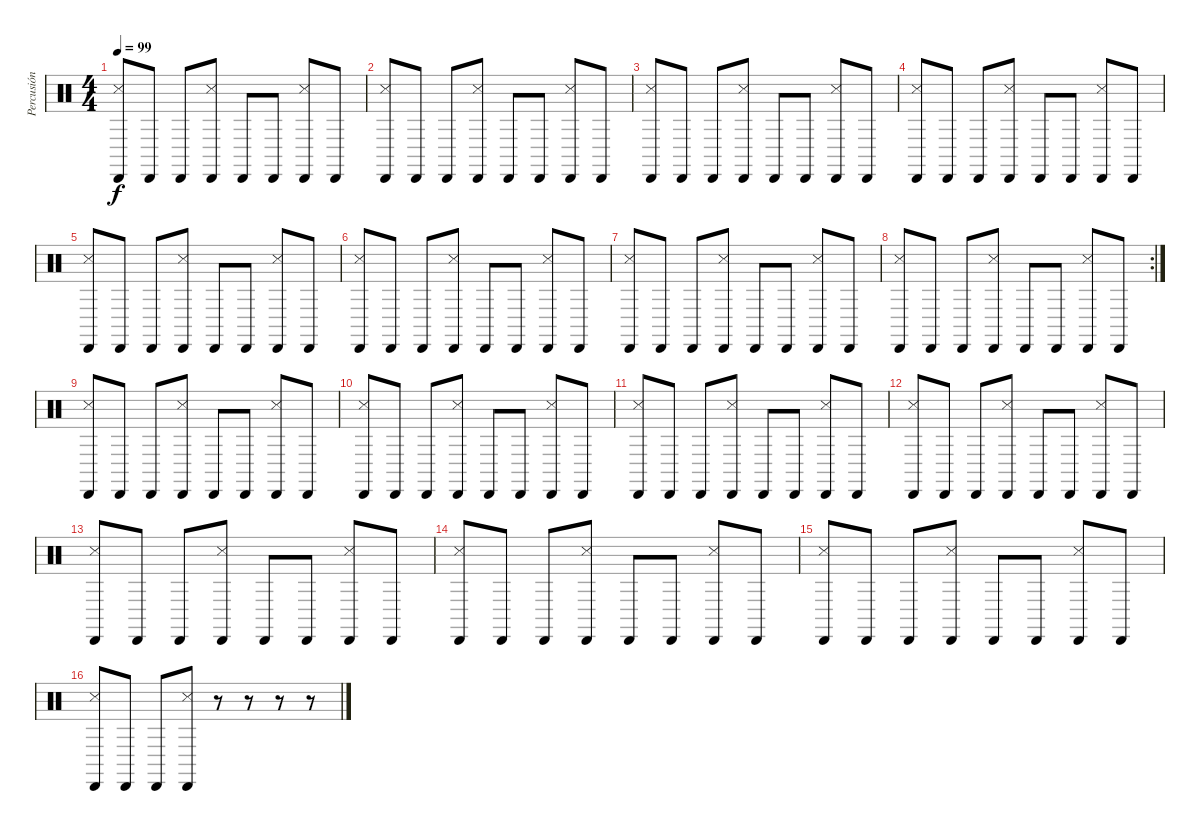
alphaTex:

\track ("Percusión" "Percusión") {instrument percussion}
\staff {score}
\articulation defaults
\ts (4 4)
\tempo 99
\clef neutral
\ks c
("Cabasa (hit)" "Metronome (hit)").8{dy f} "Cabasa (hit)".8 "Cabasa (hit)".8 ("Cabasa (hit)" "Metronome (hit)").8 "Cabasa (hit)".8 "Cabasa (hit)".8 ("Cabasa (hit)" "Metronome (hit)").8 "Cabasa (hit)".8 |
("Cabasa (hit)" "Metronome (hit)").8 "Cabasa (hit)".8 "Cabasa (hit)".8 ("Cabasa (hit)" "Metronome (hit)").8 "Cabasa (hit)".8 "Cabasa (hit)".8 ("Cabasa (hit)" "Metronome (hit)").8 "Cabasa (hit)".8 |
("Cabasa (hit)" "Metronome (hit)").8 "Cabasa (hit)".8 "Cabasa (hit)".8 ("Cabasa (hit)" "Metronome (hit)").8 "Cabasa (hit)".8 "Cabasa (hit)".8 ("Cabasa (hit)" "Metronome (hit)").8 "Cabasa (hit)".8 |
("Cabasa (hit)" "Metronome (hit)").8 "Cabasa (hit)".8 "Cabasa (hit)".8 ("Cabasa (hit)" "Metronome (hit)").8 "Cabasa (hit)".8 "Cabasa (hit)".8 ("Cabasa (hit)" "Metronome (hit)").8 "Cabasa (hit)".8 |
("Cabasa (hit)" "Metronome (hit)").8 "Cabasa (hit)".8 "Cabasa (hit)".8 ("Cabasa (hit)" "Metronome (hit)").8 "Cabasa (hit)".8 "Cabasa (hit)".8 ("Cabasa (hit)" "Metronome (hit)").8 "Cabasa (hit)".8 |
("Cabasa (hit)" "Metronome (hit)").8 "Cabasa (hit)".8 "Cabasa (hit)".8 ("Cabasa (hit)" "Metronome (hit)").8 "Cabasa (hit)".8 "Cabasa (hit)".8 ("Cabasa (hit)" "Metronome (hit)").8 "Cabasa (hit)".8 |
("Cabasa (hit)" "Metronome (hit)").8 "Cabasa (hit)".8 "Cabasa (hit)".8 ("Cabasa (hit)" "Metronome (hit)").8 "Cabasa (hit)".8 "Cabasa (hit)".8 ("Cabasa (hit)" "Metronome (hit)").8 "Cabasa (hit)".8 |
\rc 2
("Cabasa (hit)" "Metronome (hit)").8 "Cabasa (hit)".8 "Cabasa (hit)".8 ("Cabasa (hit)" "Metronome (hit)").8 "Cabasa (hit)".8 "Cabasa (hit)".8 ("Cabasa (hit)" "Metronome (hit)").8 "Cabasa (hit)".8 |
("Cabasa (hit)" "Metronome (hit)").8 "Cabasa (hit)".8 "Cabasa (hit)".8 ("Cabasa (hit)" "Metronome (hit)").8 "Cabasa (hit)".8 "Cabasa (hit)".8 ("Cabasa (hit)" "Metronome (hit)").8 "Cabasa (hit)".8 |
("Cabasa (hit)" "Metronome (hit)").8 "Cabasa (hit)".8 "Cabasa (hit)".8 ("Cabasa (hit)" "Metronome (hit)").8 "Cabasa (hit)".8 "Cabasa (hit)".8 ("Cabasa (hit)" "Metronome (hit)").8 "Cabasa (hit)".8 |
("Cabasa (hit)" "Metronome (hit)").8 "Cabasa (hit)".8 "Cabasa (hit)".8 ("Cabasa (hit)" "Metronome (hit)").8 "Cabasa (hit)".8 "Cabasa (hit)".8 ("Cabasa (hit)" "Metronome (hit)").8 "Cabasa (hit)".8 |
("Cabasa (hit)" "Metronome (hit)").8 "Cabasa (hit)".8 "Cabasa (hit)".8 ("Cabasa (hit)" "Metronome (hit)").8 "Cabasa (hit)".8 "Cabasa (hit)".8 ("Cabasa (hit)" "Metronome (hit)").8 "Cabasa (hit)".8 |
("Cabasa (hit)" "Metronome (hit)").8 "Cabasa (hit)".8 "Cabasa (hit)".8 ("Cabasa (hit)" "Metronome (hit)").8 "Cabasa (hit)".8 "Cabasa (hit)".8 ("Cabasa (hit)" "Metronome (hit)").8 "Cabasa (hit)".8 |
("Cabasa (hit)" "Metronome (hit)").8 "Cabasa (hit)".8 "Cabasa (hit)".8 ("Cabasa (hit)" "Metronome (hit)").8 "Cabasa (hit)".8 "Cabasa (hit)".8 ("Cabasa (hit)" "Metronome (hit)").8 "Cabasa (hit)".8 |
("Cabasa (hit)" "Metronome (hit)").8 "Cabasa (hit)".8 "Cabasa (hit)".8 ("Cabasa (hit)" "Metronome (hit)").8 "Cabasa (hit)".8 "Cabasa (hit)".8 ("Cabasa (hit)" "Metronome (hit)").8 "Cabasa (hit)".8 |
("Cabasa (hit)" "Metronome (hit)").8 "Cabasa (hit)".8 "Cabasa (hit)".8 ("Cabasa (hit)" "Metronome (hit)").8 r.8 r.8 r.8 r.8
